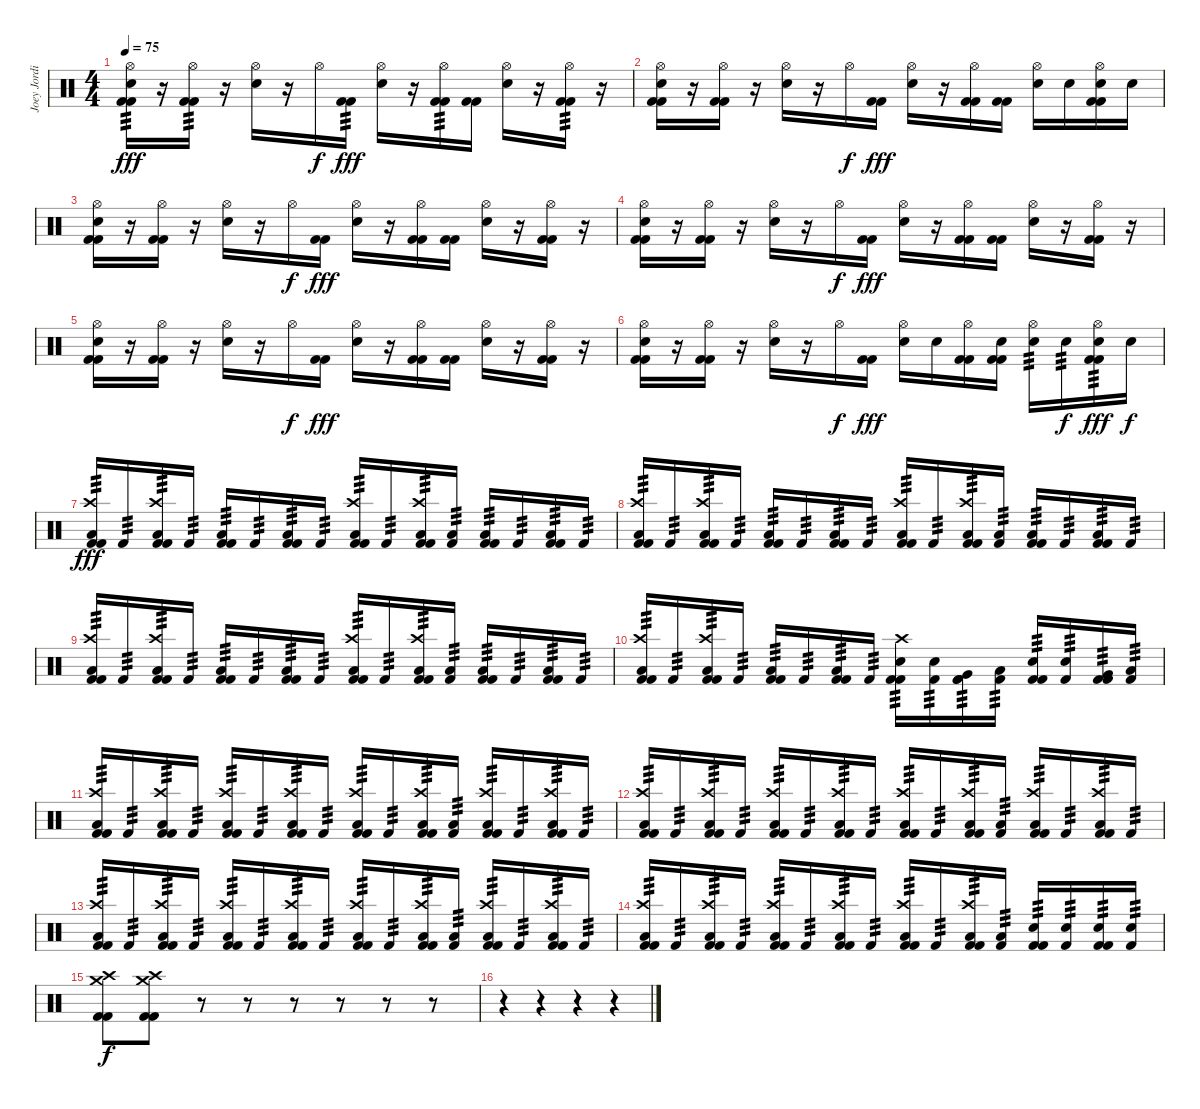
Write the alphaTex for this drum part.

\track ("Joey Jordison" "Joey Jordi") {instrument percussion}
\staff {score}
\articulation defaults
\ts (4 4)
\tempo 75
\clef neutral
\ks c
("Hi-Hat (open)" "Electric Snare (hit)" "Kick (hit) 2" "Kick (hit) 2").16{tp 3 dy fff} r.16 ("Hi-Hat (open)" "Kick (hit) 2" "Kick (hit) 2").16{tp 3} r.16 ("Hi-Hat (open)" "Electric Snare (hit)").16 r.16 "Hi-Hat (open)".16{dy f} ("Kick (hit) 2" "Kick (hit) 2").16{tp 3 dy fff} ("Hi-Hat (open)" "Electric Snare (hit)").16 r.16 ("Hi-Hat (open)" "Kick (hit) 2" "Kick (hit) 2").16{tp 3} ("Kick (hit) 2" "Kick (hit) 2").16 ("Hi-Hat (open)" "Electric Snare (hit)").16 r.16 ("Hi-Hat (open)" "Kick (hit) 2" "Kick (hit) 2").16{tp 3} r.16 |
("Hi-Hat (open)" "Electric Snare (hit)" "Kick (hit) 2" "Kick (hit) 2").16 r.16 ("Hi-Hat (open)" "Kick (hit) 2" "Kick (hit) 2").16 r.16 ("Hi-Hat (open)" "Electric Snare (hit)").16 r.16 "Hi-Hat (open)".16{dy f} ("Kick (hit) 2" "Kick (hit) 2").16{dy fff} ("Hi-Hat (open)" "Electric Snare (hit)").16 r.16 ("Hi-Hat (open)" "Kick (hit) 2" "Kick (hit) 2").16 ("Kick (hit) 2" "Kick (hit) 2").16 ("Hi-Hat (open)" "Electric Snare (hit)").16 "Electric Snare (hit)".16 ("Hi-Hat (open)" "Electric Snare (hit)" "Kick (hit) 2" "Kick (hit) 2").16 "Electric Snare (hit)".16 |
("Hi-Hat (open)" "Electric Snare (hit)" "Kick (hit) 2" "Kick (hit) 2").16 r.16 ("Hi-Hat (open)" "Kick (hit) 2" "Kick (hit) 2").16 r.16 ("Hi-Hat (open)" "Electric Snare (hit)").16 r.16 "Hi-Hat (open)".16{dy f} ("Kick (hit) 2" "Kick (hit) 2").16{dy fff} ("Hi-Hat (open)" "Electric Snare (hit)").16 r.16 ("Hi-Hat (open)" "Kick (hit) 2" "Kick (hit) 2").16 ("Kick (hit) 2" "Kick (hit) 2").16 ("Hi-Hat (open)" "Electric Snare (hit)").16 r.16 ("Hi-Hat (open)" "Kick (hit) 2" "Kick (hit) 2").16 r.16 |
("Hi-Hat (open)" "Electric Snare (hit)" "Kick (hit) 2" "Kick (hit) 2").16 r.16 ("Hi-Hat (open)" "Kick (hit) 2" "Kick (hit) 2").16 r.16 ("Hi-Hat (open)" "Electric Snare (hit)").16 r.16 "Hi-Hat (open)".16{dy f} ("Kick (hit) 2" "Kick (hit) 2").16{dy fff} ("Hi-Hat (open)" "Electric Snare (hit)").16 r.16 ("Hi-Hat (open)" "Kick (hit) 2" "Kick (hit) 2").16 ("Kick (hit) 2" "Kick (hit) 2").16 ("Hi-Hat (open)" "Electric Snare (hit)").16 r.16 ("Hi-Hat (open)" "Kick (hit) 2" "Kick (hit) 2").16 r.16 |
("Hi-Hat (open)" "Electric Snare (hit)" "Kick (hit) 2" "Kick (hit) 2").16 r.16 ("Hi-Hat (open)" "Kick (hit) 2" "Kick (hit) 2").16 r.16 ("Hi-Hat (open)" "Electric Snare (hit)").16 r.16 "Hi-Hat (open)".16{dy f} ("Kick (hit) 2" "Kick (hit) 2").16{dy fff} ("Hi-Hat (open)" "Electric Snare (hit)").16 r.16 ("Hi-Hat (open)" "Kick (hit) 2" "Kick (hit) 2").16 ("Kick (hit) 2" "Kick (hit) 2").16 ("Hi-Hat (open)" "Electric Snare (hit)").16 r.16 ("Hi-Hat (open)" "Kick (hit) 2" "Kick (hit) 2").16 r.16 |
("Hi-Hat (open)" "Electric Snare (hit)" "Kick (hit) 2" "Kick (hit) 2").16 r.16 ("Hi-Hat (open)" "Kick (hit) 2" "Kick (hit) 2").16 r.16 ("Hi-Hat (open)" "Electric Snare (hit)").16 r.16 "Hi-Hat (open)".16{dy f} ("Kick (hit) 2" "Kick (hit) 2").16{dy fff} ("Hi-Hat (open)" "Electric Snare (hit)").16 "Electric Snare (hit)".16 ("Hi-Hat (open)" "Kick (hit) 2" "Kick (hit) 2").16 ("Electric Snare (hit)" "Kick (hit) 2" "Kick (hit) 2").16 ("Hi-Hat (open)" "Electric Snare (hit)").16{tp 3} "Electric Snare (hit)".16{tp 3 dy f} ("Hi-Hat (open)" "Electric Snare (hit)" "Kick (hit) 2" "Kick (hit) 2").16{tp 3 dy fff} "Electric Snare (hit)".16{dy f} |
("Crash high (hit)" "Low Floor Tom (hit)" "Kick (hit) 2" "Kick (hit) 2").16{tp 3 dy fff} "Kick (hit) 2".16{tp 3} ("Crash high (hit)" "Low Floor Tom (hit)" "Kick (hit) 2" "Kick (hit) 2").16{tp 3} "Kick (hit) 2".16{tp 3} ("Low Floor Tom (hit)" "Kick (hit) 2" "Kick (hit) 2").16{tp 3} "Kick (hit) 2".16{tp 3} ("Low Floor Tom (hit)" "Kick (hit) 2" "Kick (hit) 2").16{tp 3} "Kick (hit) 2".16{tp 3} ("Crash high (hit)" "Low Floor Tom (hit)" "Kick (hit) 2" "Kick (hit) 2").16{tp 3} "Kick (hit) 2".16{tp 3} ("Crash high (hit)" "Low Floor Tom (hit)" "Kick (hit) 2" "Kick (hit) 2").16{tp 3} ("Low Floor Tom (hit)" "Kick (hit) 2").16{tp 3} ("Low Floor Tom (hit)" "Kick (hit) 2" "Kick (hit) 2").16{tp 3} "Kick (hit) 2".16{tp 3} ("Low Floor Tom (hit)" "Kick (hit) 2" "Kick (hit) 2").16{tp 3} "Kick (hit) 2".16{tp 3} |
("Crash high (hit)" "Low Floor Tom (hit)" "Kick (hit) 2" "Kick (hit) 2").16{tp 3} "Kick (hit) 2".16{tp 3} ("Crash high (hit)" "Low Floor Tom (hit)" "Kick (hit) 2" "Kick (hit) 2").16{tp 3} "Kick (hit) 2".16{tp 3} ("Low Floor Tom (hit)" "Kick (hit) 2" "Kick (hit) 2").16{tp 3} "Kick (hit) 2".16{tp 3} ("Low Floor Tom (hit)" "Kick (hit) 2" "Kick (hit) 2").16{tp 3} "Kick (hit) 2".16{tp 3} ("Crash high (hit)" "Low Floor Tom (hit)" "Kick (hit) 2" "Kick (hit) 2").16{tp 3} "Kick (hit) 2".16{tp 3} ("Crash high (hit)" "Low Floor Tom (hit)" "Kick (hit) 2" "Kick (hit) 2").16{tp 3} ("Low Floor Tom (hit)" "Kick (hit) 2").16{tp 3} ("Low Floor Tom (hit)" "Kick (hit) 2" "Kick (hit) 2").16{tp 3} "Kick (hit) 2".16{tp 3} ("Low Floor Tom (hit)" "Kick (hit) 2" "Kick (hit) 2").16{tp 3} "Kick (hit) 2".16{tp 3} |
("Crash high (hit)" "Low Floor Tom (hit)" "Kick (hit) 2" "Kick (hit) 2").16{tp 3} "Kick (hit) 2".16{tp 3} ("Crash high (hit)" "Low Floor Tom (hit)" "Kick (hit) 2" "Kick (hit) 2").16{tp 3} "Kick (hit) 2".16{tp 3} ("Low Floor Tom (hit)" "Kick (hit) 2" "Kick (hit) 2").16{tp 3} "Kick (hit) 2".16{tp 3} ("Low Floor Tom (hit)" "Kick (hit) 2" "Kick (hit) 2").16{tp 3} "Kick (hit) 2".16{tp 3} ("Crash high (hit)" "Low Floor Tom (hit)" "Kick (hit) 2" "Kick (hit) 2").16{tp 3} "Kick (hit) 2".16{tp 3} ("Crash high (hit)" "Low Floor Tom (hit)" "Kick (hit) 2" "Kick (hit) 2").16{tp 3} ("Low Floor Tom (hit)" "Kick (hit) 2").16{tp 3} ("Low Floor Tom (hit)" "Kick (hit) 2" "Kick (hit) 2").16{tp 3} "Kick (hit) 2".16{tp 3} ("Low Floor Tom (hit)" "Kick (hit) 2" "Kick (hit) 2").16{tp 3} "Kick (hit) 2".16{tp 3} |
("Crash high (hit)" "Low Floor Tom (hit)" "Kick (hit) 2" "Kick (hit) 2").16{tp 3} "Kick (hit) 2".16{tp 3} ("Crash high (hit)" "Low Floor Tom (hit)" "Kick (hit) 2" "Kick (hit) 2").16{tp 3} "Kick (hit) 2".16{tp 3} ("Low Floor Tom (hit)" "Kick (hit) 2" "Kick (hit) 2").16{tp 3} "Kick (hit) 2".16{tp 3} ("Low Floor Tom (hit)" "Kick (hit) 2" "Kick (hit) 2").16{tp 3} "Kick (hit) 2".16{tp 3} ("Crash high (hit)" "Electric Snare (hit)" "Kick (hit) 2" "Kick (hit) 2").16{tp 3} ("Electric Snare (hit)" "Kick (hit) 2").16{tp 3} ("Very Low Tom (hit)" "Kick (hit) 2" "Kick (hit) 2").16{tp 3} ("Low Floor Tom (hit)" "Kick (hit) 2").16{tp 3} ("Electric Snare (hit)" "Kick (hit) 2" "Kick (hit) 2").16{tp 3} ("Electric Snare (hit)" "Kick (hit) 2").16{tp 3} ("Very Low Tom (hit)" "Kick (hit) 2" "Kick (hit) 2").16{tp 3} ("Low Floor Tom (hit)" "Kick (hit) 2").16{tp 3} |
("Crash high (hit)" "Low Floor Tom (hit)" "Kick (hit) 2" "Kick (hit) 2").16{tp 3} "Kick (hit) 2".16{tp 3} ("Crash high (hit)" "Low Floor Tom (hit)" "Kick (hit) 2" "Kick (hit) 2").16{tp 3} "Kick (hit) 2".16{tp 3} ("Crash high (hit)" "Low Floor Tom (hit)" "Kick (hit) 2" "Kick (hit) 2").16{tp 3} "Kick (hit) 2".16{tp 3} ("Crash high (hit)" "Low Floor Tom (hit)" "Kick (hit) 2" "Kick (hit) 2").16{tp 3} "Kick (hit) 2".16{tp 3} ("Crash high (hit)" "Low Floor Tom (hit)" "Kick (hit) 2" "Kick (hit) 2").16{tp 3} "Kick (hit) 2".16{tp 3} ("Crash high (hit)" "Low Floor Tom (hit)" "Kick (hit) 2" "Kick (hit) 2").16{tp 3} ("Low Floor Tom (hit)" "Kick (hit) 2").16{tp 3} ("Crash high (hit)" "Low Floor Tom (hit)" "Kick (hit) 2" "Kick (hit) 2").16{tp 3} "Kick (hit) 2".16{tp 3} ("Crash high (hit)" "Low Floor Tom (hit)" "Kick (hit) 2" "Kick (hit) 2").16{tp 3} "Kick (hit) 2".16{tp 3} |
("Crash high (hit)" "Low Floor Tom (hit)" "Kick (hit) 2" "Kick (hit) 2").16{tp 3} "Kick (hit) 2".16{tp 3} ("Crash high (hit)" "Low Floor Tom (hit)" "Kick (hit) 2" "Kick (hit) 2").16{tp 3} "Kick (hit) 2".16{tp 3} ("Crash high (hit)" "Low Floor Tom (hit)" "Kick (hit) 2" "Kick (hit) 2").16{tp 3} "Kick (hit) 2".16{tp 3} ("Crash high (hit)" "Low Floor Tom (hit)" "Kick (hit) 2" "Kick (hit) 2").16{tp 3} "Kick (hit) 2".16{tp 3} ("Crash high (hit)" "Low Floor Tom (hit)" "Kick (hit) 2" "Kick (hit) 2").16{tp 3} "Kick (hit) 2".16{tp 3} ("Crash high (hit)" "Low Floor Tom (hit)" "Kick (hit) 2" "Kick (hit) 2").16{tp 3} ("Low Floor Tom (hit)" "Kick (hit) 2").16{tp 3} ("Crash high (hit)" "Low Floor Tom (hit)" "Kick (hit) 2" "Kick (hit) 2").16{tp 3} "Kick (hit) 2".16{tp 3} ("Crash high (hit)" "Low Floor Tom (hit)" "Kick (hit) 2" "Kick (hit) 2").16{tp 3} "Kick (hit) 2".16{tp 3} |
("Crash high (hit)" "Low Floor Tom (hit)" "Kick (hit) 2" "Kick (hit) 2").16{tp 3} "Kick (hit) 2".16{tp 3} ("Crash high (hit)" "Low Floor Tom (hit)" "Kick (hit) 2" "Kick (hit) 2").16{tp 3} "Kick (hit) 2".16{tp 3} ("Crash high (hit)" "Low Floor Tom (hit)" "Kick (hit) 2" "Kick (hit) 2").16{tp 3} "Kick (hit) 2".16{tp 3} ("Crash high (hit)" "Low Floor Tom (hit)" "Kick (hit) 2" "Kick (hit) 2").16{tp 3} "Kick (hit) 2".16{tp 3} ("Crash high (hit)" "Low Floor Tom (hit)" "Kick (hit) 2" "Kick (hit) 2").16{tp 3} "Kick (hit) 2".16{tp 3} ("Crash high (hit)" "Low Floor Tom (hit)" "Kick (hit) 2" "Kick (hit) 2").16{tp 3} ("Low Floor Tom (hit)" "Kick (hit) 2").16{tp 3} ("Crash high (hit)" "Low Floor Tom (hit)" "Kick (hit) 2" "Kick (hit) 2").16{tp 3} "Kick (hit) 2".16{tp 3} ("Crash high (hit)" "Low Floor Tom (hit)" "Kick (hit) 2" "Kick (hit) 2").16{tp 3} "Kick (hit) 2".16{tp 3} |
("Crash high (hit)" "Low Floor Tom (hit)" "Kick (hit) 2" "Kick (hit) 2").16{tp 3} "Kick (hit) 2".16{tp 3} ("Crash high (hit)" "Low Floor Tom (hit)" "Kick (hit) 2" "Kick (hit) 2").16{tp 3} "Kick (hit) 2".16{tp 3} ("Crash high (hit)" "Low Floor Tom (hit)" "Kick (hit) 2" "Kick (hit) 2").16{tp 3} "Kick (hit) 2".16{tp 3} ("Crash high (hit)" "Low Floor Tom (hit)" "Kick (hit) 2" "Kick (hit) 2").16{tp 3} "Kick (hit) 2".16{tp 3} ("Crash high (hit)" "Low Floor Tom (hit)" "Kick (hit) 2" "Kick (hit) 2").16{tp 3} "Kick (hit) 2".16{tp 3} ("Crash high (hit)" "Low Floor Tom (hit)" "Kick (hit) 2" "Kick (hit) 2").16{tp 3} ("Low Floor Tom (hit)" "Kick (hit) 2").16{tp 3} ("Electric Snare (hit)" "Kick (hit) 2" "Kick (hit) 2").16{tp 3} ("Electric Snare (hit)" "Kick (hit) 2").16{tp 3} ("Electric Snare (hit)" "Kick (hit) 2" "Kick (hit) 2").16{tp 3} ("Electric Snare (hit)" "Kick (hit) 2").16{tp 3} |
("Crash medium (hit)" "Crash high (hit)" "Kick (hit) 2" "Kick (hit) 2").8{dy f} ("Crash medium (hit)" "Crash high (hit)" "Kick (hit) 2" "Kick (hit) 2").8 r.8 r.8 r.8 r.8 r.8 r.8 |
r.4 r.4 r.4 r.4
